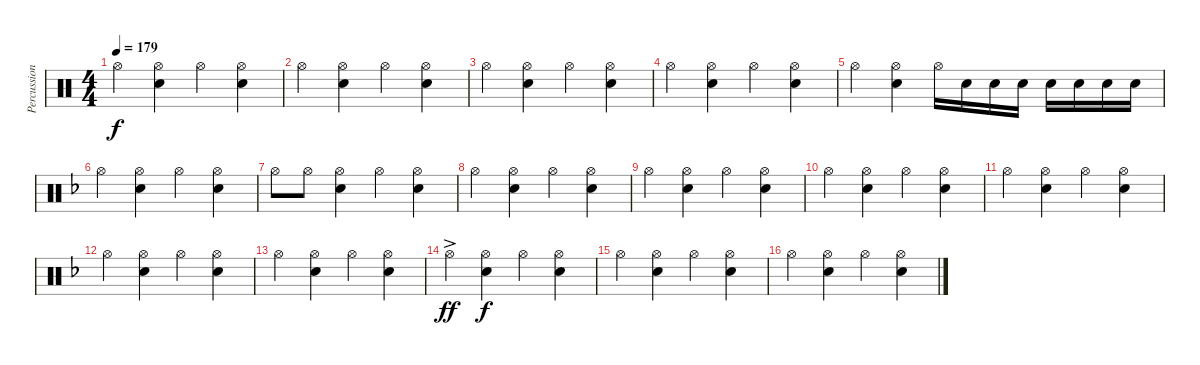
\track ("Percussion 01" "Percussion") {instrument percussion}
\staff {score}
\articulation defaults
\ts (4 4)
\tempo 179
\clef neutral
\ks aminor "Hi-Hat (open)".4{dy f}
("Hi-Hat (open)" "Snare (hit) 2").4 "Hi-Hat (open)".4 ("Hi-Hat (open)" "Snare (hit) 2").4 |
"Hi-Hat (open)".4 ("Hi-Hat (open)" "Snare (hit) 2").4 "Hi-Hat (open)".4 ("Hi-Hat (open)" "Snare (hit) 2").4 |
"Hi-Hat (open)".4 ("Hi-Hat (open)" "Snare (hit) 2").4 "Hi-Hat (open)".4 ("Hi-Hat (open)" "Snare (hit) 2").4 |
"Hi-Hat (open)".4 ("Hi-Hat (open)" "Snare (hit) 2").4 "Hi-Hat (open)".4 ("Hi-Hat (open)" "Snare (hit) 2").4 |
"Hi-Hat (open)".4 ("Hi-Hat (open)" "Snare (hit) 2").4 "Hi-Hat (open)".16 "Snare (hit) 2".16 "Snare (hit) 2".16 "Snare (hit) 2".16 "Snare (hit) 2".16 "Snare (hit) 2".16 "Snare (hit) 2".16 "Snare (hit) 2".16 |
\ks dminor "Hi-Hat (open)".4
("Hi-Hat (open)" "Snare (hit) 2").4 "Hi-Hat (open)".4 ("Hi-Hat (open)" "Snare (hit) 2").4 |
"Hi-Hat (open)".8 "Hi-Hat (open)".8 ("Hi-Hat (open)" "Snare (hit) 2").4 "Hi-Hat (open)".4 ("Hi-Hat (open)" "Snare (hit) 2").4 |
"Hi-Hat (open)".4 ("Hi-Hat (open)" "Snare (hit) 2").4 "Hi-Hat (open)".4 ("Hi-Hat (open)" "Snare (hit) 2").4 |
"Hi-Hat (open)".4 ("Hi-Hat (open)" "Snare (hit) 2").4 "Hi-Hat (open)".4 ("Hi-Hat (open)" "Snare (hit) 2").4 |
"Hi-Hat (open)".4 ("Hi-Hat (open)" "Snare (hit) 2").4 "Hi-Hat (open)".4 ("Hi-Hat (open)" "Snare (hit) 2").4 |
"Hi-Hat (open)".4 ("Hi-Hat (open)" "Snare (hit) 2").4 "Hi-Hat (open)".4 ("Hi-Hat (open)" "Snare (hit) 2").4 |
"Hi-Hat (open)".4 ("Hi-Hat (open)" "Snare (hit) 2").4 "Hi-Hat (open)".4 ("Hi-Hat (open)" "Snare (hit) 2").4 |
"Hi-Hat (open)".4 ("Hi-Hat (open)" "Snare (hit) 2").4 "Hi-Hat (open)".4 ("Hi-Hat (open)" "Snare (hit) 2").4 |
"Hi-Hat (open)"{ac}.4{dy ff} ("Hi-Hat (open)" "Snare (hit) 2").4{dy f} "Hi-Hat (open)".4 ("Hi-Hat (open)" "Snare (hit) 2").4 |
"Hi-Hat (open)".4 ("Hi-Hat (open)" "Snare (hit) 2").4 "Hi-Hat (open)".4 ("Hi-Hat (open)" "Snare (hit) 2").4 |
"Hi-Hat (open)".4 ("Hi-Hat (open)" "Snare (hit) 2").4 "Hi-Hat (open)".4 ("Hi-Hat (open)" "Snare (hit) 2").4
